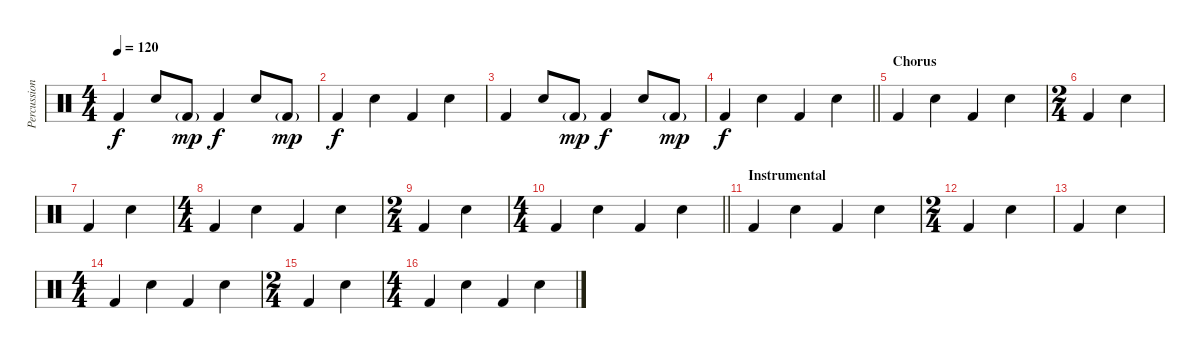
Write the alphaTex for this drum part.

\track ("Percussion" "Percussion") {instrument percussion}
\staff {score}
\articulation defaults
\ts (4 4)
\tempo 120
\clef neutral
\ks c "Kick (hit) 2".4{dy f} "Snare (hit) 2".8 "Kick (hit) 2"{g}.8{dy mp} "Kick (hit) 2".4{dy f} "Snare (hit) 2".8 "Kick (hit) 2"{g}.8{dy mp}
|
"Kick (hit) 2".4{dy f} "Snare (hit) 2".4 "Kick (hit) 2".4 "Snare (hit) 2".4 |
"Kick (hit) 2".4 "Snare (hit) 2".8 "Kick (hit) 2"{g}.8{dy mp} "Kick (hit) 2".4{dy f} "Snare (hit) 2".8 "Kick (hit) 2"{g}.8{dy mp} |
\barLineRight lightlight "Kick (hit) 2".4{dy f} "Snare (hit) 2".4 "Kick (hit) 2".4 "Snare (hit) 2".4
|
\section ("" "Chorus")
"Kick (hit) 2".4 "Snare (hit) 2".4 "Kick (hit) 2".4 "Snare (hit) 2".4 |
\ts (2 4)
"Kick (hit) 2".4 "Snare (hit) 2".4 |
"Kick (hit) 2".4 "Snare (hit) 2".4 |
\ts (4 4)
"Kick (hit) 2".4 "Snare (hit) 2".4 "Kick (hit) 2".4 "Snare (hit) 2".4 |
\ts (2 4)
"Kick (hit) 2".4 "Snare (hit) 2".4 |
\ts (4 4)
\barLineRight lightlight "Kick (hit) 2".4 "Snare (hit) 2".4 "Kick (hit) 2".4 "Snare (hit) 2".4
|
\section ("" "Instrumental")
"Kick (hit) 2".4 "Snare (hit) 2".4 "Kick (hit) 2".4 "Snare (hit) 2".4 |
\ts (2 4)
"Kick (hit) 2".4 "Snare (hit) 2".4 |
"Kick (hit) 2".4 "Snare (hit) 2".4 |
\ts (4 4)
"Kick (hit) 2".4 "Snare (hit) 2".4 "Kick (hit) 2".4 "Snare (hit) 2".4 |
\ts (2 4)
"Kick (hit) 2".4 "Snare (hit) 2".4 |
\ts (4 4)
"Kick (hit) 2".4 "Snare (hit) 2".4 "Kick (hit) 2".4 "Snare (hit) 2".4
